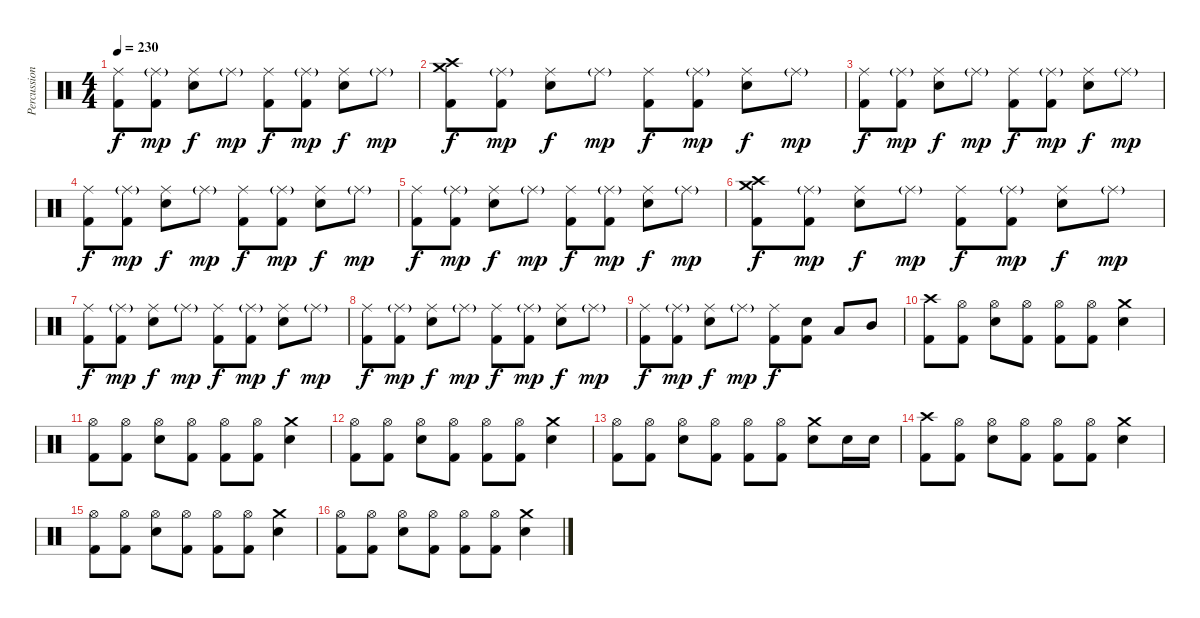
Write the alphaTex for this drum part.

\track ("Percussion" "Percussion") {instrument percussion}
\staff {score}
\articulation defaults
\ts (4 4)
\tempo 230
\clef neutral
\ks c
("Ride (middle)" "Kick (hit) 2").8{dy f} ("Ride (middle)"{g} "Kick (hit) 2").8{dy mp} ("Ride (middle)" "Snare (hit) 2").8{dy f} "Ride (middle)"{g}.8{dy mp} ("Ride (middle)" "Kick (hit) 2").8{dy f} ("Ride (middle)"{g} "Kick (hit) 2").8{dy mp} ("Ride (middle)" "Snare (hit) 2").8{dy f} "Ride (middle)"{g}.8{dy mp} |
("Crash medium (hit)" "Crash high (hit)" "Kick (hit) 2").8{dy f} ("Ride (middle)"{g} "Kick (hit) 2").8{dy mp} ("Ride (middle)" "Snare (hit) 2").8{dy f} "Ride (middle)"{g}.8{dy mp} ("Ride (middle)" "Kick (hit) 2").8{dy f} ("Ride (middle)"{g} "Kick (hit) 2").8{dy mp} ("Ride (middle)" "Snare (hit) 2").8{dy f} "Ride (middle)"{g}.8{dy mp} |
("Ride (middle)" "Kick (hit) 2").8{dy f} ("Ride (middle)"{g} "Kick (hit) 2").8{dy mp} ("Ride (middle)" "Snare (hit) 2").8{dy f} "Ride (middle)"{g}.8{dy mp} ("Ride (middle)" "Kick (hit) 2").8{dy f} ("Ride (middle)"{g} "Kick (hit) 2").8{dy mp} ("Ride (middle)" "Snare (hit) 2").8{dy f} "Ride (middle)"{g}.8{dy mp} |
("Ride (middle)" "Kick (hit) 2").8{dy f} ("Ride (middle)"{g} "Kick (hit) 2").8{dy mp} ("Ride (middle)" "Snare (hit) 2").8{dy f} "Ride (middle)"{g}.8{dy mp} ("Ride (middle)" "Kick (hit) 2").8{dy f} ("Ride (middle)"{g} "Kick (hit) 2").8{dy mp} ("Ride (middle)" "Snare (hit) 2").8{dy f} "Ride (middle)"{g}.8{dy mp} |
("Ride (middle)" "Kick (hit) 2").8{dy f} ("Ride (middle)"{g} "Kick (hit) 2").8{dy mp} ("Ride (middle)" "Snare (hit) 2").8{dy f} "Ride (middle)"{g}.8{dy mp} ("Ride (middle)" "Kick (hit) 2").8{dy f} ("Ride (middle)"{g} "Kick (hit) 2").8{dy mp} ("Ride (middle)" "Snare (hit) 2").8{dy f} "Ride (middle)"{g}.8{dy mp} |
("Crash medium (hit)" "Crash high (hit)" "Kick (hit) 2").8{dy f} ("Ride (middle)"{g} "Kick (hit) 2").8{dy mp} ("Ride (middle)" "Snare (hit) 2").8{dy f} "Ride (middle)"{g}.8{dy mp} ("Ride (middle)" "Kick (hit) 2").8{dy f} ("Ride (middle)"{g} "Kick (hit) 2").8{dy mp} ("Ride (middle)" "Snare (hit) 2").8{dy f} "Ride (middle)"{g}.8{dy mp} |
("Ride (middle)" "Kick (hit) 2").8{dy f} ("Ride (middle)"{g} "Kick (hit) 2").8{dy mp} ("Ride (middle)" "Snare (hit) 2").8{dy f} "Ride (middle)"{g}.8{dy mp} ("Ride (middle)" "Kick (hit) 2").8{dy f} ("Ride (middle)"{g} "Kick (hit) 2").8{dy mp} ("Ride (middle)" "Snare (hit) 2").8{dy f} "Ride (middle)"{g}.8{dy mp} |
("Ride (middle)" "Kick (hit) 2").8{dy f} ("Ride (middle)"{g} "Kick (hit) 2").8{dy mp} ("Ride (middle)" "Snare (hit) 2").8{dy f} "Ride (middle)"{g}.8{dy mp} ("Ride (middle)" "Kick (hit) 2").8{dy f} ("Ride (middle)"{g} "Kick (hit) 2").8{dy mp} ("Ride (middle)" "Snare (hit) 2").8{dy f} "Ride (middle)"{g}.8{dy mp} |
("Ride (middle)" "Kick (hit) 2").8{dy f} ("Ride (middle)"{g} "Kick (hit) 2").8{dy mp} ("Ride (middle)" "Snare (hit) 2").8{dy f} "Ride (middle)"{g}.8{dy mp} ("Ride (middle)" "Kick (hit) 2").8{dy f} ("Snare (hit) 2" "Kick (hit) 2").8 "Low Tom (hit)".8 "Mid Tom (hit)".8 |
("Crash high (hit)" "Kick (hit) 2").8 ("Hi-Hat (open)" "Kick (hit) 2").8 ("Hi-Hat (open)" "Snare (hit) 2").8 ("Hi-Hat (open)" "Kick (hit) 2").8 ("Hi-Hat (open)" "Kick (hit) 2").8 ("Hi-Hat (open)" "Kick (hit) 2").8 ("Crash medium (hit)" "Snare (hit) 2").4 |
("Hi-Hat (open)" "Kick (hit) 2").8 ("Hi-Hat (open)" "Kick (hit) 2").8 ("Hi-Hat (open)" "Snare (hit) 2").8 ("Hi-Hat (open)" "Kick (hit) 2").8 ("Hi-Hat (open)" "Kick (hit) 2").8 ("Hi-Hat (open)" "Kick (hit) 2").8 ("Crash medium (hit)" "Snare (hit) 2").4 |
("Hi-Hat (open)" "Kick (hit) 2").8 ("Hi-Hat (open)" "Kick (hit) 2").8 ("Hi-Hat (open)" "Snare (hit) 2").8 ("Hi-Hat (open)" "Kick (hit) 2").8 ("Hi-Hat (open)" "Kick (hit) 2").8 ("Hi-Hat (open)" "Kick (hit) 2").8 ("Crash medium (hit)" "Snare (hit) 2").4 |
("Hi-Hat (open)" "Kick (hit) 2").8 ("Hi-Hat (open)" "Kick (hit) 2").8 ("Hi-Hat (open)" "Snare (hit) 2").8 ("Hi-Hat (open)" "Kick (hit) 2").8 ("Hi-Hat (open)" "Kick (hit) 2").8 ("Hi-Hat (open)" "Kick (hit) 2").8 ("Crash medium (hit)" "Snare (hit) 2").8 "Snare (hit) 2".16 "Snare (hit) 2".16 |
("Crash high (hit)" "Kick (hit) 2").8 ("Hi-Hat (open)" "Kick (hit) 2").8 ("Hi-Hat (open)" "Snare (hit) 2").8 ("Hi-Hat (open)" "Kick (hit) 2").8 ("Hi-Hat (open)" "Kick (hit) 2").8 ("Hi-Hat (open)" "Kick (hit) 2").8 ("Crash medium (hit)" "Snare (hit) 2").4 |
("Hi-Hat (open)" "Kick (hit) 2").8 ("Hi-Hat (open)" "Kick (hit) 2").8 ("Hi-Hat (open)" "Snare (hit) 2").8 ("Hi-Hat (open)" "Kick (hit) 2").8 ("Hi-Hat (open)" "Kick (hit) 2").8 ("Hi-Hat (open)" "Kick (hit) 2").8 ("Crash medium (hit)" "Snare (hit) 2").4 |
("Hi-Hat (open)" "Kick (hit) 2").8 ("Hi-Hat (open)" "Kick (hit) 2").8 ("Hi-Hat (open)" "Snare (hit) 2").8 ("Hi-Hat (open)" "Kick (hit) 2").8 ("Hi-Hat (open)" "Kick (hit) 2").8 ("Hi-Hat (open)" "Kick (hit) 2").8 ("Crash medium (hit)" "Snare (hit) 2").4
